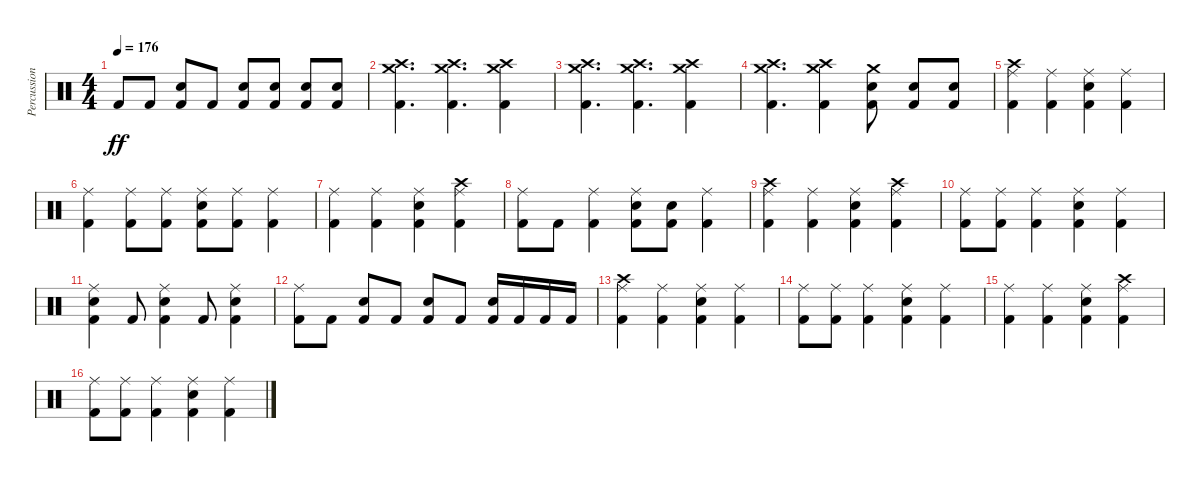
\track ("Percussion" "Percussion") {instrument percussion}
\staff {score}
\articulation defaults
\ts (4 4)
\tempo 176
\clef neutral
\ks c "Kick (hit) 2".8{dy ff} "Kick (hit) 2".8
("Kick (hit) 2" "Electric Snare (hit)").8 "Kick (hit) 2".8 ("Kick (hit) 2" "Electric Snare (hit)").8 ("Kick (hit) 2" "Electric Snare (hit)").8 ("Kick (hit) 2" "Electric Snare (hit)").8 ("Kick (hit) 2" "Electric Snare (hit)").8 |
("Kick (hit) 2" "Crash high (hit)" "Crash medium (hit)").4{d} ("Kick (hit) 2" "Crash high (hit)" "Crash medium (hit)").4{d} ("Kick (hit) 2" "Crash high (hit)" "Crash medium (hit)").4 |
("Kick (hit) 2" "Crash high (hit)" "Crash medium (hit)").4{d} ("Kick (hit) 2" "Crash high (hit)" "Crash medium (hit)").4{d} ("Kick (hit) 2" "Crash high (hit)" "Crash medium (hit)").4 |
("Kick (hit) 2" "Crash high (hit)" "Crash medium (hit)").4{d} ("Kick (hit) 2" "Crash high (hit)" "Crash medium (hit)").4 ("Kick (hit) 2" "Electric Snare (hit)" "Crash medium (hit)").8 ("Kick (hit) 2" "Electric Snare (hit)").8 ("Kick (hit) 2" "Electric Snare (hit)").8 |
("Kick (hit) 2" "Ride (middle)" "Crash high (hit)").4 ("Kick (hit) 2" "Ride (middle)").4 ("Kick (hit) 2" "Electric Snare (hit)" "Ride (middle)").4 ("Kick (hit) 2" "Ride (middle)").4 |
("Kick (hit) 2" "Ride (middle)").4 ("Kick (hit) 2" "Ride (middle)").8 ("Kick (hit) 2" "Ride (middle)").8 ("Kick (hit) 2" "Electric Snare (hit)" "Ride (middle)").8 ("Kick (hit) 2" "Ride (middle)").8 ("Kick (hit) 2" "Ride (middle)").4 |
("Kick (hit) 2" "Ride (middle)").4 ("Kick (hit) 2" "Ride (middle)").4 ("Kick (hit) 2" "Electric Snare (hit)" "Ride (middle)").4 ("Kick (hit) 2" "Ride (middle)" "Crash high (hit)").4 |
("Kick (hit) 2" "Ride (middle)").8 "Kick (hit) 2".8 ("Kick (hit) 2" "Ride (middle)").4 ("Kick (hit) 2" "Electric Snare (hit)" "Ride (middle)").8 ("Kick (hit) 2" "Electric Snare (hit)").8 ("Kick (hit) 2" "Ride (middle)").4 |
("Kick (hit) 2" "Ride (middle)" "Crash high (hit)").4 ("Kick (hit) 2" "Ride (middle)").4 ("Kick (hit) 2" "Electric Snare (hit)" "Ride (middle)").4 ("Kick (hit) 2" "Ride (middle)" "Crash high (hit)").4 |
("Kick (hit) 2" "Ride (middle)").8 ("Kick (hit) 2" "Ride (middle)").8 ("Kick (hit) 2" "Ride (middle)").4 ("Kick (hit) 2" "Electric Snare (hit)" "Ride (middle)").4 ("Kick (hit) 2" "Ride (middle)").4 |
("Kick (hit) 2" "Electric Snare (hit)" "Ride (middle)").4 "Kick (hit) 2".8 ("Kick (hit) 2" "Electric Snare (hit)" "Ride (middle)").4 "Kick (hit) 2".8 ("Kick (hit) 2" "Electric Snare (hit)" "Ride (middle)").4 |
("Kick (hit) 2" "Ride (middle)").8 "Kick (hit) 2".8 ("Kick (hit) 2" "Electric Snare (hit)").8 "Kick (hit) 2".8 ("Kick (hit) 2" "Electric Snare (hit)").8 "Kick (hit) 2".8 ("Kick (hit) 2" "Electric Snare (hit)").16 "Kick (hit) 2".16 "Kick (hit) 2".16 "Kick (hit) 2".16 |
("Kick (hit) 2" "Ride (middle)" "Crash high (hit)").4 ("Kick (hit) 2" "Ride (middle)").4 ("Kick (hit) 2" "Electric Snare (hit)" "Ride (middle)").4 ("Kick (hit) 2" "Ride (middle)").4 |
("Kick (hit) 2" "Ride (middle)").8 ("Kick (hit) 2" "Ride (middle)").8 ("Kick (hit) 2" "Ride (middle)").4 ("Kick (hit) 2" "Electric Snare (hit)" "Ride (middle)").4 ("Kick (hit) 2" "Ride (middle)").4 |
("Kick (hit) 2" "Ride (middle)").4 ("Kick (hit) 2" "Ride (middle)").4 ("Kick (hit) 2" "Electric Snare (hit)" "Ride (middle)").4 ("Kick (hit) 2" "Ride (middle)" "Crash high (hit)").4 |
("Kick (hit) 2" "Ride (middle)").8 ("Kick (hit) 2" "Ride (middle)").8 ("Kick (hit) 2" "Ride (middle)").4 ("Kick (hit) 2" "Electric Snare (hit)" "Ride (middle)").4 ("Kick (hit) 2" "Ride (middle)").4
